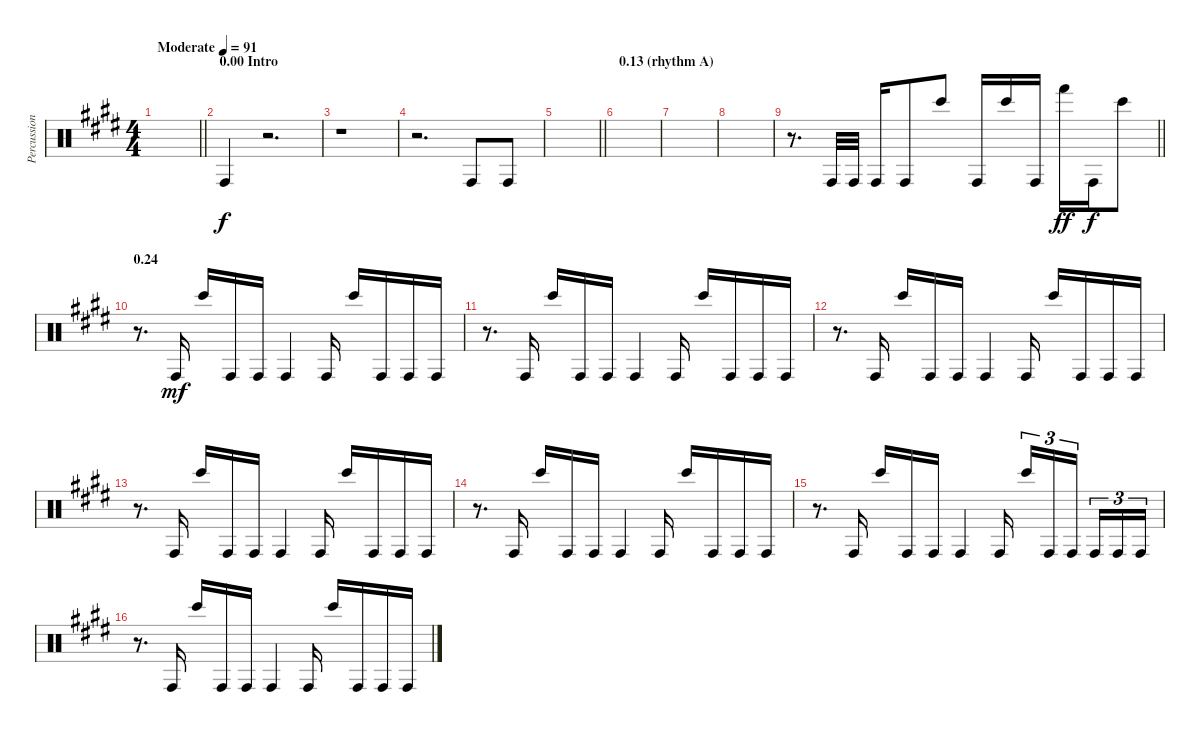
\track ("Percussion" "Percussion") {instrument percussion}
\staff {score}
\articulation defaults
\ts (4 4)
\tempo (91 "Moderate")
\clef neutral
\barLineRight lightlight
\ks e
|
\section ("" "0.00 Intro")
"Conga high (hit)".4 r.2{d} |
r.1 |
r.2{d} "Conga high (hit)".8 "Conga high (hit)".8 |
\barLineRight lightlight
|
\section ("" "0.13 (rhythm A)")
|
|
|
\barLineRight lightlight
r.8{d} "Conga high (hit)".32 "Conga high (hit)".32 "Conga high (hit)".16 "Conga high (hit)".8 "Bongo High (hit)".8{dy f} "Conga high (hit)".16 "Bongo High (hit)".16 "Conga high (hit)".16 "Hand (hit)".16{dy ff} "Conga high (hit)".16{dy f} "Bongo High (hit)".8 |
\section ("" "0.24")
r.8{d} "Conga high (hit)".16{dy mf} "Bongo High (hit)".16 "Conga high (hit)".16 "Conga high (hit)".16 "Conga high (hit)".4 "Conga high (hit)".16 "Bongo High (hit)".16 "Conga high (hit)".16 "Conga high (hit)".16 "Conga high (hit)".16 |
r.8{d} "Conga high (hit)".16 "Bongo High (hit)".16 "Conga high (hit)".16 "Conga high (hit)".16 "Conga high (hit)".4 "Conga high (hit)".16 "Bongo High (hit)".16 "Conga high (hit)".16 "Conga high (hit)".16 "Conga high (hit)".16 |
r.8{d} "Conga high (hit)".16 "Bongo High (hit)".16 "Conga high (hit)".16 "Conga high (hit)".16 "Conga high (hit)".4 "Conga high (hit)".16 "Bongo High (hit)".16 "Conga high (hit)".16 "Conga high (hit)".16 "Conga high (hit)".16 |
r.8{d} "Conga high (hit)".16 "Bongo High (hit)".16 "Conga high (hit)".16 "Conga high (hit)".16 "Conga high (hit)".4 "Conga high (hit)".16 "Bongo High (hit)".16 "Conga high (hit)".16 "Conga high (hit)".16 "Conga high (hit)".16 |
r.8{d} "Conga high (hit)".16 "Bongo High (hit)".16 "Conga high (hit)".16 "Conga high (hit)".16 "Conga high (hit)".4 "Conga high (hit)".16 "Bongo High (hit)".16 "Conga high (hit)".16 "Conga high (hit)".16 "Conga high (hit)".16 |
r.8{d} "Conga high (hit)".16 "Bongo High (hit)".16 "Conga high (hit)".16 "Conga high (hit)".16 "Conga high (hit)".4 "Conga high (hit)".16 "Bongo High (hit)".16{tu (3 2)} "Conga high (hit)".16{tu (3 2)} "Conga high (hit)".16{tu (3 2) beam splitsecondary} "Conga high (hit)".16{tu (3 2)} "Conga high (hit)".16{tu (3 2)} "Conga high (hit)".16{tu (3 2)} |
r.8{d} "Conga high (hit)".16 "Bongo High (hit)".16 "Conga high (hit)".16 "Conga high (hit)".16 "Conga high (hit)".4 "Conga high (hit)".16 "Bongo High (hit)".16 "Conga high (hit)".16 "Conga high (hit)".16 "Conga high (hit)".16
